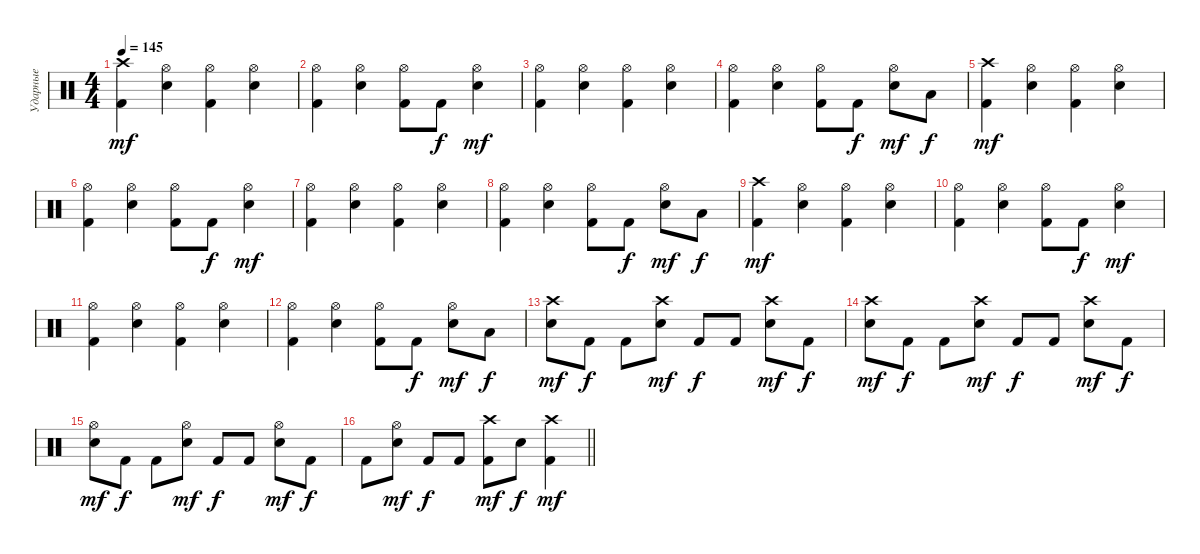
\track ("Ударные" "Ударные") {instrument percussion}
\staff {score}
\articulation defaults
\ts (4 4)
\tempo 145
\clef neutral
\ks c
("Kick (hit) 2" "Crash high (hit)").4{dy mf} ("Snare (hit) 2" "Hi-Hat (open)").4 ("Kick (hit) 2" "Hi-Hat (open)").4 ("Snare (hit) 2" "Hi-Hat (open)").4 |
("Kick (hit) 2" "Hi-Hat (open)").4 ("Snare (hit) 2" "Hi-Hat (open)").4 ("Kick (hit) 2" "Hi-Hat (open)").8 "Kick (hit) 2".8{dy f} ("Snare (hit) 2" "Hi-Hat (open)").4{dy mf} |
("Kick (hit) 2" "Hi-Hat (open)").4 ("Snare (hit) 2" "Hi-Hat (open)").4 ("Kick (hit) 2" "Hi-Hat (open)").4 ("Snare (hit) 2" "Hi-Hat (open)").4 |
("Kick (hit) 2" "Hi-Hat (open)").4 ("Snare (hit) 2" "Hi-Hat (open)").4 ("Kick (hit) 2" "Hi-Hat (open)").8 "Kick (hit) 2".8{dy f} ("Snare (hit) 2" "Hi-Hat (open)").8{dy mf} "Low Floor Tom (hit)".8{dy f} |
("Kick (hit) 2" "Crash high (hit)").4{dy mf} ("Snare (hit) 2" "Hi-Hat (open)").4 ("Kick (hit) 2" "Hi-Hat (open)").4 ("Snare (hit) 2" "Hi-Hat (open)").4 |
("Kick (hit) 2" "Hi-Hat (open)").4 ("Snare (hit) 2" "Hi-Hat (open)").4 ("Kick (hit) 2" "Hi-Hat (open)").8 "Kick (hit) 2".8{dy f} ("Snare (hit) 2" "Hi-Hat (open)").4{dy mf} |
("Kick (hit) 2" "Hi-Hat (open)").4 ("Snare (hit) 2" "Hi-Hat (open)").4 ("Kick (hit) 2" "Hi-Hat (open)").4 ("Snare (hit) 2" "Hi-Hat (open)").4 |
("Kick (hit) 2" "Hi-Hat (open)").4 ("Snare (hit) 2" "Hi-Hat (open)").4 ("Kick (hit) 2" "Hi-Hat (open)").8 "Kick (hit) 2".8{dy f} ("Snare (hit) 2" "Hi-Hat (open)").8{dy mf} "Low Floor Tom (hit)".8{dy f} |
("Kick (hit) 2" "Crash high (hit)").4{dy mf} ("Snare (hit) 2" "Hi-Hat (open)").4 ("Kick (hit) 2" "Hi-Hat (open)").4 ("Snare (hit) 2" "Hi-Hat (open)").4 |
("Kick (hit) 2" "Hi-Hat (open)").4 ("Snare (hit) 2" "Hi-Hat (open)").4 ("Kick (hit) 2" "Hi-Hat (open)").8 "Kick (hit) 2".8{dy f} ("Snare (hit) 2" "Hi-Hat (open)").4{dy mf} |
("Kick (hit) 2" "Hi-Hat (open)").4 ("Snare (hit) 2" "Hi-Hat (open)").4 ("Kick (hit) 2" "Hi-Hat (open)").4 ("Snare (hit) 2" "Hi-Hat (open)").4 |
("Kick (hit) 2" "Hi-Hat (open)").4 ("Snare (hit) 2" "Hi-Hat (open)").4 ("Kick (hit) 2" "Hi-Hat (open)").8 "Kick (hit) 2".8{dy f} ("Snare (hit) 2" "Hi-Hat (open)").8{dy mf} "Low Floor Tom (hit)".8{dy f} |
("Snare (hit) 2" "Crash high (hit)").8{dy mf} "Kick (hit) 2".8{dy f} "Kick (hit) 2".8 ("Snare (hit) 2" "Crash high (hit)").8{dy mf} "Kick (hit) 2".8{dy f} "Kick (hit) 2".8 ("Snare (hit) 2" "Crash high (hit)").8{dy mf} "Kick (hit) 2".8{dy f} |
("Snare (hit) 2" "Crash high (hit)").8{dy mf} "Kick (hit) 2".8{dy f} "Kick (hit) 2".8 ("Snare (hit) 2" "Crash high (hit)").8{dy mf} "Kick (hit) 2".8{dy f} "Kick (hit) 2".8 ("Snare (hit) 2" "Crash high (hit)").8{dy mf} "Kick (hit) 2".8{dy f} |
("Snare (hit) 2" "Hi-Hat (open)").8{dy mf} "Kick (hit) 2".8{dy f} "Kick (hit) 2".8 ("Snare (hit) 2" "Hi-Hat (open)").8{dy mf} "Kick (hit) 2".8{dy f} "Kick (hit) 2".8 ("Snare (hit) 2" "Hi-Hat (open)").8{dy mf} "Kick (hit) 2".8{dy f} |
\barLineRight lightlight "Kick (hit) 2".8
("Snare (hit) 2" "Hi-Hat (open)").8{dy mf} "Kick (hit) 2".8{dy f} "Kick (hit) 2".8 ("Kick (hit) 2" "Crash high (hit)").8{dy mf} "Snare (hit) 2".8{dy f} ("Kick (hit) 2" "Crash high (hit)").4{dy mf}
